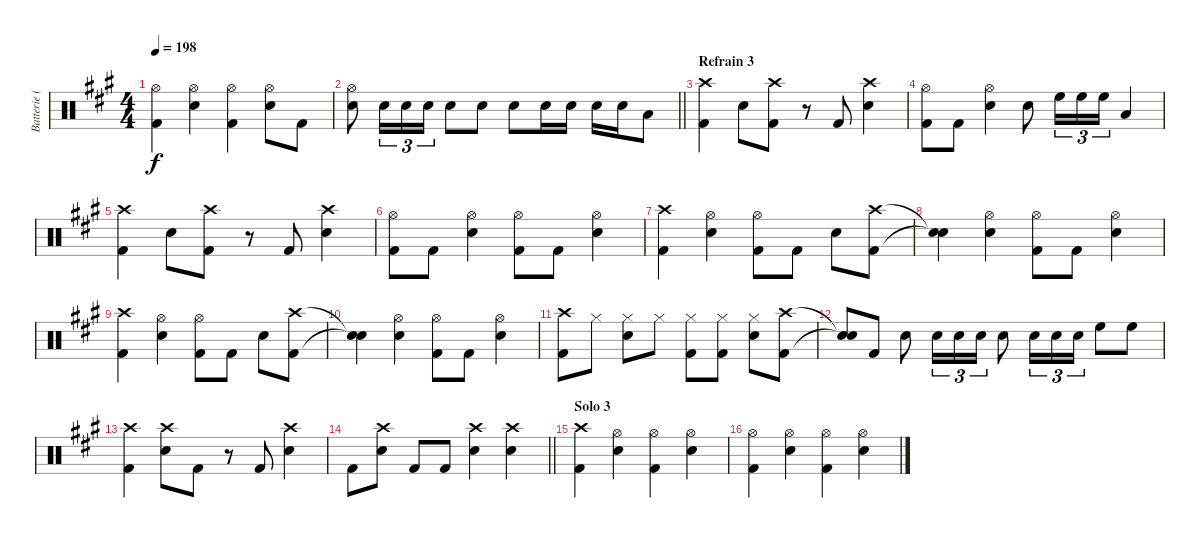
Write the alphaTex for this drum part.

\track ("Batterie (Phil Roud)" "Batterie (") {instrument percussion}
\staff {score}
\articulation defaults
\ts (4 4)
\tempo 198
\clef neutral
\ks a
("Hi-Hat (open)" "Kick (hit) 2").4{dy f} ("Hi-Hat (open)" "Snare (hit) 2").4 ("Hi-Hat (open)" "Kick (hit) 2").4 ("Hi-Hat (open)" "Snare (hit) 2").8 "Kick (hit) 2".8 |
\barLineRight lightlight
("Hi-Hat (open)" "Snare (hit) 2").8 "Snare (hit) 2".16{tu (3 2)} "Snare (hit) 2".16{tu (3 2)} "Snare (hit) 2".16{tu (3 2)} "Snare (hit) 2".8 "Snare (hit) 2".8 "Snare (hit) 2".8 "Snare (hit) 2".16 "Snare (hit) 2".16 "Snare (hit) 2".16 "Snare (hit) 2".16 "Low Floor Tom (hit)".8 |
\section ("" "Refrain 3")
("Crash high (hit)" "Kick (hit) 2").4 "Snare (hit) 2".8 ("Crash high (hit)" "Kick (hit) 2").8 r.8 "Kick (hit) 2".8 ("Crash high (hit)" "Snare (hit) 2").4 |
("Hi-Hat (open)" "Kick (hit) 2").8 "Kick (hit) 2".8 ("Hi-Hat (open)" "Snare (hit) 2").4 "Snare (hit) 2".8 "High Floor Tom (hit)".16{tu (3 2)} "High Floor Tom (hit)".16{tu (3 2)} "High Floor Tom (hit)".16{tu (3 2)} "Low Floor Tom (hit)".4 |
("Crash high (hit)" "Kick (hit) 2").4 "Snare (hit) 2".8 ("Crash high (hit)" "Kick (hit) 2").8 r.8 "Kick (hit) 2".8 ("Crash high (hit)" "Snare (hit) 2").4 |
("Hi-Hat (open)" "Kick (hit) 2").8 "Kick (hit) 2".8 ("Hi-Hat (open)" "Snare (hit) 2").4 ("Hi-Hat (open)" "Kick (hit) 2").8 "Kick (hit) 2".8 ("Hi-Hat (open)" "Snare (hit) 2").4 |
("Crash high (hit)" "Kick (hit) 2").4 ("Hi-Hat (open)" "Snare (hit) 2").4 ("Hi-Hat (open)" "Kick (hit) 2").8 "Kick (hit) 2".8 "Snare (hit) 2".8 ("Crash high (hit)" "Kick (hit) 2").8 |
("Snare (hit)"{t} "Snare (hit)"{t}).4 ("Hi-Hat (open)" "Snare (hit) 2").4 ("Hi-Hat (open)" "Kick (hit) 2").8 "Kick (hit) 2".8 ("Hi-Hat (open)" "Snare (hit) 2").4 |
("Crash high (hit)" "Kick (hit) 2").4 ("Hi-Hat (open)" "Snare (hit) 2").4 ("Hi-Hat (open)" "Kick (hit) 2").8 "Kick (hit) 2".8 "Snare (hit) 2".8 ("Crash high (hit)" "Kick (hit) 2").8 |
("Snare (hit)"{t} "Snare (hit)"{t}).4 ("Hi-Hat (open)" "Snare (hit) 2").4 ("Hi-Hat (open)" "Kick (hit) 2").8 "Kick (hit) 2".8 ("Hi-Hat (open)" "Snare (hit) 2").4 |
("Crash high (hit)" "Kick (hit) 2").8 "Hi-Hat (closed)".8 ("Hi-Hat (closed)" "Snare (hit) 2").8 "Hi-Hat (closed)".8 ("Hi-Hat (closed)" "Kick (hit) 2").8 ("Hi-Hat (closed)" "Kick (hit) 2").8 ("Hi-Hat (closed)" "Snare (hit) 2").8 ("Crash high (hit)" "Kick (hit) 2").8 |
("Snare (hit)"{t} "Snare (hit)"{t}).8 "Kick (hit) 2".8 "Snare (hit) 2".8 "Snare (hit) 2".16{tu (3 2)} "Snare (hit) 2".16{tu (3 2)} "Snare (hit) 2".16{tu (3 2)} "Snare (hit) 2".8 "Snare (hit) 2".16{tu (3 2)} "Snare (hit) 2".16{tu (3 2)} "Snare (hit) 2".16{tu (3 2)} "High Floor Tom (hit)".8 "High Floor Tom (hit)".8 |
("Crash high (hit)" "Kick (hit) 2").4 ("Crash high (hit)" "Snare (hit) 2").8 "Kick (hit) 2".8 r.8 "Kick (hit) 2".8 ("Crash high (hit)" "Snare (hit) 2").4 |
\barLineRight lightlight "Kick (hit) 2".8
("Crash high (hit)" "Snare (hit) 2").8 "Kick (hit) 2".8 "Kick (hit) 2".8 ("Crash high (hit)" "Snare (hit) 2").4 ("Crash high (hit)" "Snare (hit) 2").4 |
\section ("" "Solo 3")
("Crash high (hit)" "Kick (hit) 2").4 ("Hi-Hat (open)" "Snare (hit) 2").4 ("Hi-Hat (open)" "Kick (hit) 2").4 ("Hi-Hat (open)" "Snare (hit) 2").4 |
("Hi-Hat (open)" "Kick (hit) 2").4 ("Hi-Hat (open)" "Snare (hit) 2").4 ("Hi-Hat (open)" "Kick (hit) 2").4 ("Hi-Hat (open)" "Snare (hit) 2").4
